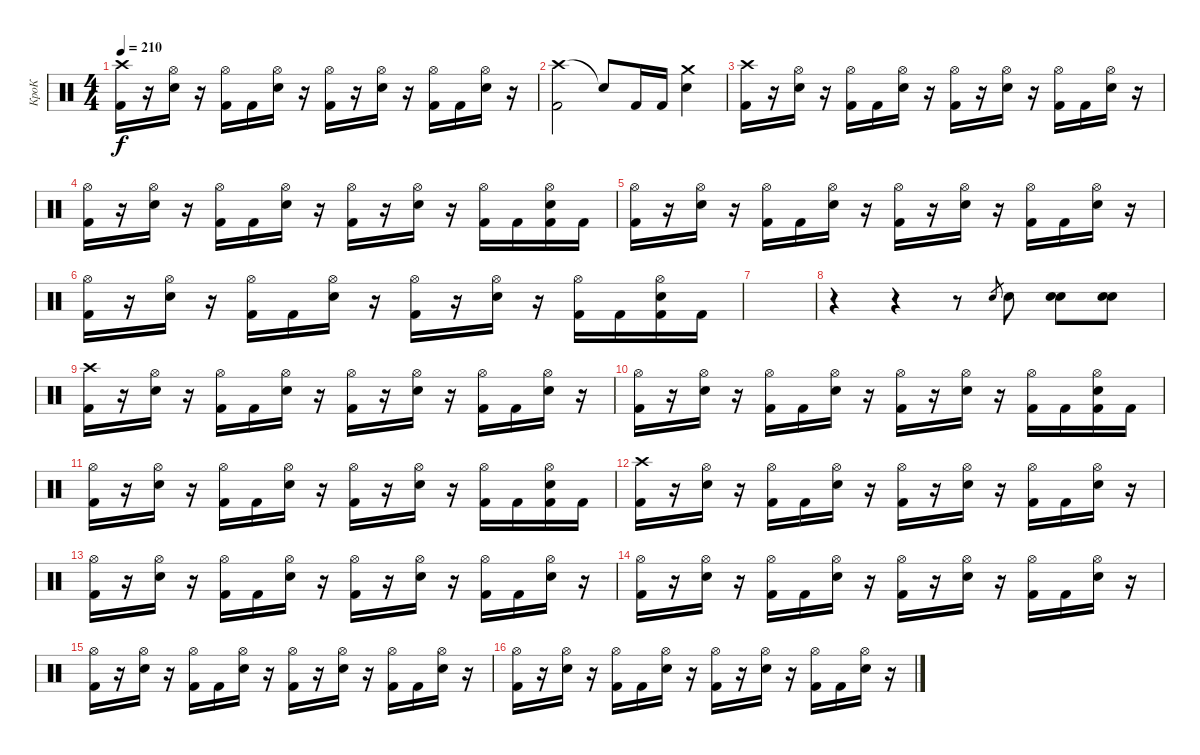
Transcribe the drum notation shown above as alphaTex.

\track ("КроК" "КроК") {instrument percussion}
\staff {score}
\articulation defaults
\ts (4 4)
\tempo 210
\clef neutral
\ks c
("Crash high (hit)" "Kick (hit) 2").16{dy f} r.16 ("Hi-Hat (open)" "Electric Snare (hit)").16 r.16 ("Hi-Hat (open)" "Kick (hit) 2").16 "Kick (hit) 2".16 ("Hi-Hat (open)" "Electric Snare (hit)").16 r.16 ("Hi-Hat (open)" "Kick (hit) 2").16 r.16 ("Hi-Hat (open)" "Electric Snare (hit)").16 r.16 ("Hi-Hat (open)" "Kick (hit) 2").16 "Kick (hit) 2".16 ("Hi-Hat (open)" "Electric Snare (hit)").16 r.16 |
("Crash high (hit)" "Kick (hit) 2").2 "Snare (hit)"{t}.8 "Kick (hit) 2".16 "Kick (hit) 2".16 ("Crash medium (hit)" "Electric Snare (hit)").4 |
("Crash high (hit)" "Kick (hit) 2").16 r.16 ("Hi-Hat (open)" "Electric Snare (hit)").16 r.16 ("Hi-Hat (open)" "Kick (hit) 2").16 "Kick (hit) 2".16 ("Hi-Hat (open)" "Electric Snare (hit)").16 r.16 ("Hi-Hat (open)" "Kick (hit) 2").16 r.16 ("Hi-Hat (open)" "Electric Snare (hit)").16 r.16 ("Hi-Hat (open)" "Kick (hit) 2").16 "Kick (hit) 2".16 ("Hi-Hat (open)" "Electric Snare (hit)").16 r.16 |
("Hi-Hat (open)" "Kick (hit) 2").16 r.16 ("Hi-Hat (open)" "Electric Snare (hit)").16 r.16 ("Hi-Hat (open)" "Kick (hit) 2").16 "Kick (hit) 2".16 ("Hi-Hat (open)" "Electric Snare (hit)").16 r.16 ("Hi-Hat (open)" "Kick (hit) 2").16 r.16 ("Hi-Hat (open)" "Electric Snare (hit)").16 r.16 ("Hi-Hat (open)" "Kick (hit) 2").16 "Kick (hit) 2".16 ("Hi-Hat (open)" "Electric Snare (hit)" "Kick (hit) 2").16 "Kick (hit) 2".16 |
("Hi-Hat (open)" "Kick (hit) 2").16 r.16 ("Hi-Hat (open)" "Electric Snare (hit)").16 r.16 ("Hi-Hat (open)" "Kick (hit) 2").16 "Kick (hit) 2".16 ("Hi-Hat (open)" "Electric Snare (hit)").16 r.16 ("Hi-Hat (open)" "Kick (hit) 2").16 r.16 ("Hi-Hat (open)" "Electric Snare (hit)").16 r.16 ("Hi-Hat (open)" "Kick (hit) 2").16 "Kick (hit) 2".16 ("Hi-Hat (open)" "Electric Snare (hit)").16 r.16 |
("Hi-Hat (open)" "Kick (hit) 2").16 r.16 ("Hi-Hat (open)" "Electric Snare (hit)").16 r.16 ("Hi-Hat (open)" "Kick (hit) 2").16 "Kick (hit) 2".16 ("Hi-Hat (open)" "Electric Snare (hit)").16 r.16 ("Hi-Hat (open)" "Kick (hit) 2").16 r.16 ("Hi-Hat (open)" "Electric Snare (hit)").16 r.16 ("Hi-Hat (open)" "Kick (hit) 2").16 "Kick (hit) 2".16 ("Hi-Hat (open)" "Electric Snare (hit)" "Kick (hit) 2").16 "Kick (hit) 2".16 |
|
r.4 r.4 r.8 "Electric Snare (hit)".8{gr} "Electric Snare (hit)".8 ("Electric Snare (hit)" "Electric Snare (hit)").8 ("Electric Snare (hit)" "Electric Snare (hit)").8 |
("Crash high (hit)" "Kick (hit) 2").16 r.16 ("Hi-Hat (open)" "Electric Snare (hit)").16 r.16 ("Hi-Hat (open)" "Kick (hit) 2").16 "Kick (hit) 2".16 ("Hi-Hat (open)" "Electric Snare (hit)").16 r.16 ("Hi-Hat (open)" "Kick (hit) 2").16 r.16 ("Hi-Hat (open)" "Electric Snare (hit)").16 r.16 ("Hi-Hat (open)" "Kick (hit) 2").16 "Kick (hit) 2".16 ("Hi-Hat (open)" "Electric Snare (hit)").16 r.16 |
("Hi-Hat (open)" "Kick (hit) 2").16 r.16 ("Hi-Hat (open)" "Electric Snare (hit)").16 r.16 ("Hi-Hat (open)" "Kick (hit) 2").16 "Kick (hit) 2".16 ("Hi-Hat (open)" "Electric Snare (hit)").16 r.16 ("Hi-Hat (open)" "Kick (hit) 2").16 r.16 ("Hi-Hat (open)" "Electric Snare (hit)").16 r.16 ("Hi-Hat (open)" "Kick (hit) 2").16 "Kick (hit) 2".16 ("Hi-Hat (open)" "Electric Snare (hit)" "Kick (hit) 2").16 "Kick (hit) 2".16 |
("Hi-Hat (open)" "Kick (hit) 2").16 r.16 ("Hi-Hat (open)" "Electric Snare (hit)").16 r.16 ("Hi-Hat (open)" "Kick (hit) 2").16 "Kick (hit) 2".16 ("Hi-Hat (open)" "Electric Snare (hit)").16 r.16 ("Hi-Hat (open)" "Kick (hit) 2").16 r.16 ("Hi-Hat (open)" "Electric Snare (hit)").16 r.16 ("Hi-Hat (open)" "Kick (hit) 2").16 "Kick (hit) 2".16 ("Hi-Hat (open)" "Electric Snare (hit)" "Kick (hit) 2").16 "Kick (hit) 2".16 |
("Crash high (hit)" "Kick (hit) 2").16 r.16 ("Hi-Hat (open)" "Electric Snare (hit)").16 r.16 ("Hi-Hat (open)" "Kick (hit) 2").16 "Kick (hit) 2".16 ("Hi-Hat (open)" "Electric Snare (hit)").16 r.16 ("Hi-Hat (open)" "Kick (hit) 2").16 r.16 ("Hi-Hat (open)" "Electric Snare (hit)").16 r.16 ("Hi-Hat (open)" "Kick (hit) 2").16 "Kick (hit) 2".16 ("Hi-Hat (open)" "Electric Snare (hit)").16 r.16 |
("Hi-Hat (open)" "Kick (hit) 2").16 r.16 ("Hi-Hat (open)" "Electric Snare (hit)").16 r.16 ("Hi-Hat (open)" "Kick (hit) 2").16 "Kick (hit) 2".16 ("Hi-Hat (open)" "Electric Snare (hit)").16 r.16 ("Hi-Hat (open)" "Kick (hit) 2").16 r.16 ("Hi-Hat (open)" "Electric Snare (hit)").16 r.16 ("Hi-Hat (open)" "Kick (hit) 2").16 "Kick (hit) 2".16 ("Hi-Hat (open)" "Electric Snare (hit)").16 r.16 |
("Hi-Hat (open)" "Kick (hit) 2").16 r.16 ("Hi-Hat (open)" "Electric Snare (hit)").16 r.16 ("Hi-Hat (open)" "Kick (hit) 2").16 "Kick (hit) 2".16 ("Hi-Hat (open)" "Electric Snare (hit)").16 r.16 ("Hi-Hat (open)" "Kick (hit) 2").16 r.16 ("Hi-Hat (open)" "Electric Snare (hit)").16 r.16 ("Hi-Hat (open)" "Kick (hit) 2").16 "Kick (hit) 2".16 ("Hi-Hat (open)" "Electric Snare (hit)").16 r.16 |
("Hi-Hat (open)" "Kick (hit) 2").16 r.16 ("Hi-Hat (open)" "Electric Snare (hit)").16 r.16 ("Hi-Hat (open)" "Kick (hit) 2").16 "Kick (hit) 2".16 ("Hi-Hat (open)" "Electric Snare (hit)").16 r.16 ("Hi-Hat (open)" "Kick (hit) 2").16 r.16 ("Hi-Hat (open)" "Electric Snare (hit)").16 r.16 ("Hi-Hat (open)" "Kick (hit) 2").16 "Kick (hit) 2".16 ("Hi-Hat (open)" "Electric Snare (hit)").16 r.16 |
("Hi-Hat (open)" "Kick (hit) 2").16 r.16 ("Hi-Hat (open)" "Electric Snare (hit)").16 r.16 ("Hi-Hat (open)" "Kick (hit) 2").16 "Kick (hit) 2".16 ("Hi-Hat (open)" "Electric Snare (hit)").16 r.16 ("Hi-Hat (open)" "Kick (hit) 2").16 r.16 ("Hi-Hat (open)" "Electric Snare (hit)").16 r.16 ("Hi-Hat (open)" "Kick (hit) 2").16 "Kick (hit) 2".16 ("Hi-Hat (open)" "Electric Snare (hit)").16 r.16
